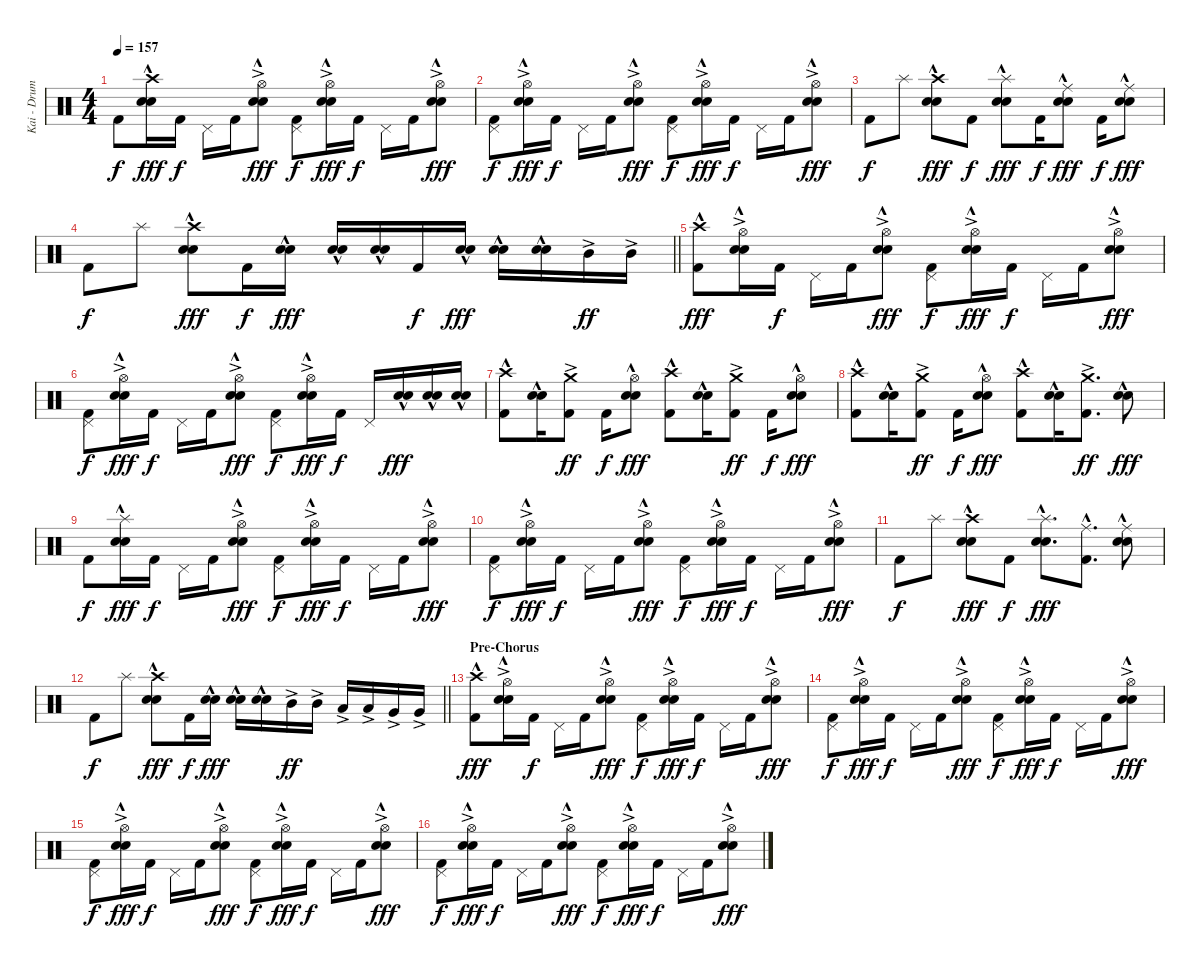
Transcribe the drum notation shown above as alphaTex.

\track ("Kai - Drums" "Kai - Drum") {instrument percussion}
\staff {score}
\articulation defaults
\ts (4 4)
\tempo 157
\clef neutral
\ks c "Kick (hit) 2".8{dy f}
("Crash high (hit)" "Electric Snare (hit)"{hac} "Snare (hit) 2").16{dy fff} "Kick (hit) 2".16{dy f} "Pedal Hi-Hat (hit)".16 "Kick (hit) 2".16 ("Hi-Hat (open)"{ac} "Electric Snare (hit)"{hac} "Snare (hit) 2").8{dy fff} ("Pedal Hi-Hat (hit)" "Kick (hit) 2").8{dy f} ("Hi-Hat (open)"{ac} "Electric Snare (hit)"{hac} "Snare (hit) 2").16{dy fff} "Kick (hit) 2".16{dy f} "Pedal Hi-Hat (hit)".16 "Kick (hit) 2".16 ("Hi-Hat (open)"{ac} "Electric Snare (hit)"{hac} "Snare (hit) 2").8{dy fff} |
("Pedal Hi-Hat (hit)" "Kick (hit) 2").8{dy f} ("Hi-Hat (open)"{ac} "Electric Snare (hit)"{hac} "Snare (hit) 2").16{dy fff} "Kick (hit) 2".16{dy f} "Pedal Hi-Hat (hit)".16 "Kick (hit) 2".16 ("Hi-Hat (open)"{ac} "Electric Snare (hit)"{hac} "Snare (hit) 2").8{dy fff} ("Pedal Hi-Hat (hit)" "Kick (hit) 2").8{dy f} ("Hi-Hat (open)"{ac} "Electric Snare (hit)"{hac} "Snare (hit) 2").16{dy fff} "Kick (hit) 2".16{dy f} "Pedal Hi-Hat (hit)".16 "Kick (hit) 2".16 ("Hi-Hat (open)"{ac} "Electric Snare (hit)"{hac} "Snare (hit) 2").8{dy fff} |
"Kick (hit) 2".8{dy f} "Splash (hit)".8 ("Crash high (hit)"{hac} "Electric Snare (hit)"{hac} "Snare (hit) 2").8{dy fff} "Kick (hit) 2".8{dy f} ("Splash (hit)"{hac} "Electric Snare (hit)"{hac} "Snare (hit) 2").8{dy fff} "Kick (hit) 2".16{dy f} ("Ride (middle)"{hac} "Electric Snare (hit)"{hac} "Snare (hit) 2").8{dy fff} "Kick (hit) 2".16{dy f} ("Ride (middle)" "Electric Snare (hit)"{hac} "Snare (hit) 2").8{dy fff} |
\barLineRight lightlight "Kick (hit) 2".8{dy f} "Splash (hit)".8
("Crash high (hit)"{hac} "Electric Snare (hit)"{hac} "Snare (hit) 2").8{dy fff} "Kick (hit) 2".16{dy f} ("Electric Snare (hit)"{hac} "Snare (hit) 2").16{dy fff} ("Electric Snare (hit)"{hac} "Snare (hit) 2").16 ("Electric Snare (hit)"{hac} "Snare (hit) 2").16 "Kick (hit) 2".16{dy f} ("Electric Snare (hit)"{hac} "Snare (hit) 2").16{dy fff} ("Electric Snare (hit)"{hac} "Snare (hit) 2").16 ("Electric Snare (hit)"{hac} "Snare (hit) 2").16 "Mid Tom (hit)"{ac}.16{dy ff} "Mid Tom (hit)"{ac}.16 |
\section ("" "")
("Crash high (hit)"{hac} "Kick (hit) 2").8{dy fff} ("Hi-Hat (open)"{ac} "Electric Snare (hit)"{hac} "Snare (hit) 2").16 "Kick (hit) 2".16{dy f} "Pedal Hi-Hat (hit)".16 "Kick (hit) 2".16 ("Hi-Hat (open)"{ac} "Electric Snare (hit)"{hac} "Snare (hit) 2").8{dy fff} ("Pedal Hi-Hat (hit)" "Kick (hit) 2").8{dy f} ("Hi-Hat (open)"{ac} "Electric Snare (hit)"{hac} "Snare (hit) 2").16{dy fff} "Kick (hit) 2".16{dy f} "Pedal Hi-Hat (hit)".16 "Kick (hit) 2".16 ("Hi-Hat (open)"{ac} "Electric Snare (hit)"{hac} "Snare (hit) 2").8{dy fff} |
("Pedal Hi-Hat (hit)" "Kick (hit) 2").8{dy f} ("Hi-Hat (open)"{ac} "Electric Snare (hit)"{hac} "Snare (hit) 2").16{dy fff} "Kick (hit) 2".16{dy f} "Pedal Hi-Hat (hit)".16 "Kick (hit) 2".16 ("Hi-Hat (open)"{ac} "Electric Snare (hit)"{hac} "Snare (hit) 2").8{dy fff} ("Pedal Hi-Hat (hit)" "Kick (hit) 2").8{dy f} ("Hi-Hat (open)"{ac} "Electric Snare (hit)"{hac} "Snare (hit) 2").16{dy fff} "Kick (hit) 2".16{dy f} "Pedal Hi-Hat (hit)".16 ("Electric Snare (hit)"{hac} "Snare (hit) 2").16{dy fff} ("Electric Snare (hit)"{hac} "Snare (hit) 2").16 ("Electric Snare (hit)"{hac} "Snare (hit) 2").16 |
("Crash high (hit)"{hac} "Kick (hit) 2").8 ("Electric Snare (hit)"{hac} "Snare (hit) 2").16 ("Crash medium (hit)"{ac} "Kick (hit) 2").8{dy ff} "Kick (hit) 2".16{dy f} ("Hi-Hat (open)" "Electric Snare (hit)"{hac} "Snare (hit) 2").8{dy fff} ("Crash high (hit)"{hac} "Kick (hit) 2").8 ("Electric Snare (hit)"{hac} "Snare (hit) 2").16 ("Crash medium (hit)"{ac} "Kick (hit) 2").8{dy ff} "Kick (hit) 2".16{dy f} ("Hi-Hat (open)" "Electric Snare (hit)"{hac} "Snare (hit) 2").8{dy fff} |
("Crash high (hit)"{hac} "Kick (hit) 2").8 ("Electric Snare (hit)"{hac} "Snare (hit) 2").16 ("Crash medium (hit)"{ac} "Kick (hit) 2").8{dy ff} "Kick (hit) 2".16{dy f} ("Hi-Hat (open)" "Electric Snare (hit)"{hac} "Snare (hit) 2").8{dy fff} ("Crash high (hit)"{hac} "Kick (hit) 2").8 ("Electric Snare (hit)"{hac} "Snare (hit) 2").16 ("Crash medium (hit)"{ac} "Kick (hit) 2").8{d dy ff} ("Electric Snare (hit)"{hac} "Snare (hit) 2").8{dy fff} |
"Kick (hit) 2".8{dy f} ("Splash (hit)"{hac} "Electric Snare (hit)"{hac} "Snare (hit) 2").16{dy fff} "Kick (hit) 2".16{dy f} "Pedal Hi-Hat (hit)".16 "Kick (hit) 2".16 ("Hi-Hat (open)"{ac} "Electric Snare (hit)"{hac} "Snare (hit) 2").8{dy fff} ("Pedal Hi-Hat (hit)" "Kick (hit) 2").8{dy f} ("Hi-Hat (open)"{ac} "Electric Snare (hit)"{hac} "Snare (hit) 2").16{dy fff} "Kick (hit) 2".16{dy f} "Pedal Hi-Hat (hit)".16 "Kick (hit) 2".16 ("Hi-Hat (open)"{ac} "Electric Snare (hit)"{hac} "Snare (hit) 2").8{dy fff} |
("Pedal Hi-Hat (hit)" "Kick (hit) 2").8{dy f} ("Hi-Hat (open)"{ac} "Electric Snare (hit)"{hac} "Snare (hit) 2").16{dy fff} "Kick (hit) 2".16{dy f} "Pedal Hi-Hat (hit)".16 "Kick (hit) 2".16 ("Hi-Hat (open)"{ac} "Electric Snare (hit)"{hac} "Snare (hit) 2").8{dy fff} ("Pedal Hi-Hat (hit)" "Kick (hit) 2").8{dy f} ("Hi-Hat (open)"{ac} "Electric Snare (hit)"{hac} "Snare (hit) 2").16{dy fff} "Kick (hit) 2".16{dy f} "Pedal Hi-Hat (hit)".16 "Kick (hit) 2".16 ("Hi-Hat (open)"{ac} "Electric Snare (hit)"{hac} "Snare (hit) 2").8{dy fff} |
"Kick (hit) 2".8{dy f} "Splash (hit)".8 ("Crash high (hit)"{hac} "Electric Snare (hit)"{hac} "Snare (hit) 2").8{dy fff} "Kick (hit) 2".8{dy f} ("Splash (hit)"{hac} "Electric Snare (hit)"{hac} "Snare (hit) 2").8{d dy fff} ("Ride (middle)"{hac} "Kick (hit) 2").8{d} ("Ride (middle)" "Electric Snare (hit)"{hac} "Snare (hit) 2").8 |
\barLineRight lightlight "Kick (hit) 2".8{dy f} "Splash (hit)".8
("Crash high (hit)"{hac} "Electric Snare (hit)"{hac} "Snare (hit) 2").8{dy fff} "Kick (hit) 2".16{dy f} ("Electric Snare (hit)"{hac} "Snare (hit) 2").16{dy fff} ("Electric Snare (hit)"{hac} "Snare (hit) 2").16{balance 0} ("Electric Snare (hit)"{hac} "Snare (hit) 2").16 "Mid Tom (hit)"{ac}.16{dy ff} "Mid Tom (hit)"{ac}.16 "Low Tom (hit)"{ac}.16 "Low Tom (hit)"{ac}.16 "Very Low Tom (hit)"{ac}.16 "Very Low Tom (hit)"{ac}.16 |
\section ("" "Pre-Chorus")
("Crash high (hit)"{hac} "Kick (hit) 2").8{dy fff balance 8} ("Hi-Hat (open)"{ac} "Electric Snare (hit)"{hac} "Snare (hit) 2").16 "Kick (hit) 2".16{dy f} "Pedal Hi-Hat (hit)".16 "Kick (hit) 2".16 ("Hi-Hat (open)"{ac} "Electric Snare (hit)"{hac} "Snare (hit) 2").8{dy fff} ("Pedal Hi-Hat (hit)" "Kick (hit) 2").8{dy f} ("Hi-Hat (open)"{ac} "Electric Snare (hit)"{hac} "Snare (hit) 2").16{dy fff} "Kick (hit) 2".16{dy f} "Pedal Hi-Hat (hit)".16 "Kick (hit) 2".16 ("Hi-Hat (open)"{ac} "Electric Snare (hit)"{hac} "Snare (hit) 2").8{dy fff} |
("Pedal Hi-Hat (hit)" "Kick (hit) 2").8{dy f} ("Hi-Hat (open)"{ac} "Electric Snare (hit)"{hac} "Snare (hit) 2").16{dy fff} "Kick (hit) 2".16{dy f} "Pedal Hi-Hat (hit)".16 "Kick (hit) 2".16 ("Hi-Hat (open)"{ac} "Electric Snare (hit)"{hac} "Snare (hit) 2").8{dy fff} ("Pedal Hi-Hat (hit)" "Kick (hit) 2").8{dy f} ("Hi-Hat (open)"{ac} "Electric Snare (hit)"{hac} "Snare (hit) 2").16{dy fff} "Kick (hit) 2".16{dy f} "Pedal Hi-Hat (hit)".16 "Kick (hit) 2".16 ("Hi-Hat (open)"{ac} "Electric Snare (hit)"{hac} "Snare (hit) 2").8{dy fff} |
("Pedal Hi-Hat (hit)" "Kick (hit) 2").8{dy f} ("Hi-Hat (open)"{ac} "Electric Snare (hit)"{hac} "Snare (hit) 2").16{dy fff} "Kick (hit) 2".16{dy f} "Pedal Hi-Hat (hit)".16 "Kick (hit) 2".16 ("Hi-Hat (open)"{ac} "Electric Snare (hit)"{hac} "Snare (hit) 2").8{dy fff} ("Pedal Hi-Hat (hit)" "Kick (hit) 2").8{dy f} ("Hi-Hat (open)"{ac} "Electric Snare (hit)"{hac} "Snare (hit) 2").16{dy fff} "Kick (hit) 2".16{dy f} "Pedal Hi-Hat (hit)".16 "Kick (hit) 2".16 ("Hi-Hat (open)"{ac} "Electric Snare (hit)"{hac} "Snare (hit) 2").8{dy fff} |
("Pedal Hi-Hat (hit)" "Kick (hit) 2").8{dy f} ("Hi-Hat (open)"{ac} "Electric Snare (hit)"{hac} "Snare (hit) 2").16{dy fff} "Kick (hit) 2".16{dy f} "Pedal Hi-Hat (hit)".16 "Kick (hit) 2".16 ("Hi-Hat (open)"{ac} "Electric Snare (hit)"{hac} "Snare (hit) 2").8{dy fff} ("Pedal Hi-Hat (hit)" "Kick (hit) 2").8{dy f} ("Hi-Hat (open)"{ac} "Electric Snare (hit)"{hac} "Snare (hit) 2").16{dy fff} "Kick (hit) 2".16{dy f} "Pedal Hi-Hat (hit)".16 "Kick (hit) 2".16 ("Hi-Hat (open)"{ac} "Electric Snare (hit)"{hac} "Snare (hit) 2").8{dy fff}
